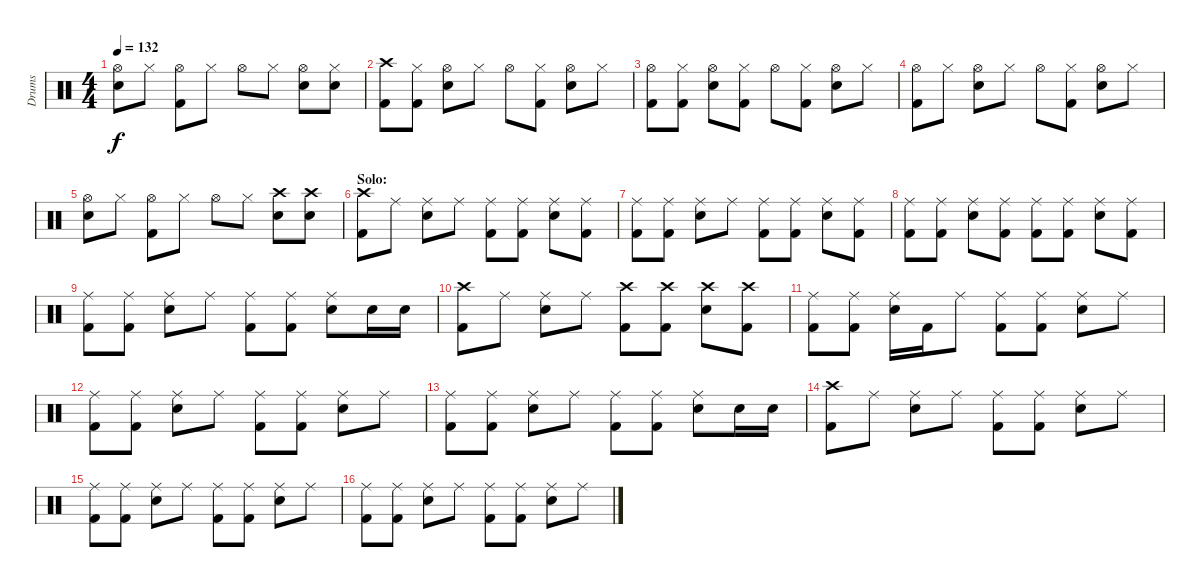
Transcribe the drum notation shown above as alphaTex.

\track ("Drums" "Drums") {instrument percussion}
\staff {score}
\articulation defaults
\ts (4 4)
\tempo 132
\clef neutral
\ks c
("Hi-Hat (open)" "Electric Snare (hit)").8{dy f} "Hi-Hat (closed)".8 ("Hi-Hat (open)" "Kick (hit) 2").8 "Hi-Hat (closed)".8 "Hi-Hat (open)".8 "Hi-Hat (closed)".8 ("Hi-Hat (open)" "Electric Snare (hit)").8 ("Hi-Hat (closed)" "Electric Snare (hit)").8 |
("Crash high (hit)" "Kick (hit) 2").8 ("Hi-Hat (closed)" "Kick (hit) 2").8 ("Hi-Hat (open)" "Electric Snare (hit)").8 "Hi-Hat (closed)".8 "Hi-Hat (open)".8 ("Hi-Hat (closed)" "Kick (hit) 2").8 ("Hi-Hat (open)" "Electric Snare (hit)").8 "Hi-Hat (closed)".8 |
("Hi-Hat (open)" "Kick (hit) 2").8 ("Hi-Hat (closed)" "Kick (hit) 2").8 ("Hi-Hat (open)" "Electric Snare (hit)").8 ("Hi-Hat (closed)" "Kick (hit) 2").8 "Hi-Hat (open)".8 ("Hi-Hat (closed)" "Kick (hit) 2").8 ("Hi-Hat (open)" "Electric Snare (hit)").8 "Hi-Hat (closed)".8 |
("Hi-Hat (open)" "Kick (hit) 2").8 "Hi-Hat (closed)".8 ("Hi-Hat (open)" "Electric Snare (hit)").8 "Hi-Hat (closed)".8 "Hi-Hat (open)".8 ("Hi-Hat (closed)" "Kick (hit) 2").8 ("Hi-Hat (open)" "Electric Snare (hit)").8 "Hi-Hat (closed)".8 |
("Hi-Hat (open)" "Electric Snare (hit)").8 "Hi-Hat (closed)".8 ("Hi-Hat (open)" "Kick (hit) 2").8 "Hi-Hat (closed)".8 "Hi-Hat (open)".8 "Hi-Hat (closed)".8 ("Crash high (hit)" "Electric Snare (hit)").8 ("Crash high (hit)" "Electric Snare (hit)").8 |
\section ("" "Solo:")
("Crash high (hit)" "Kick (hit) 2").8 "Ride (middle)".8 ("Ride (middle)" "Electric Snare (hit)").8 "Ride (middle)".8 ("Ride (middle)" "Kick (hit) 2").8 ("Ride (middle)" "Kick (hit) 2").8 ("Ride (middle)" "Electric Snare (hit)").8 ("Ride (middle)" "Kick (hit) 2").8 |
("Ride (middle)" "Kick (hit) 2").8 ("Ride (middle)" "Kick (hit) 2").8 ("Ride (middle)" "Electric Snare (hit)").8 "Ride (middle)".8 ("Ride (middle)" "Kick (hit) 2").8 ("Ride (middle)" "Kick (hit) 2").8 ("Ride (middle)" "Electric Snare (hit)").8 ("Ride (middle)" "Kick (hit) 2").8 |
("Ride (middle)" "Kick (hit) 2").8 ("Ride (middle)" "Kick (hit) 2").8 ("Ride (middle)" "Electric Snare (hit)").8 ("Ride (middle)" "Kick (hit) 2").8 ("Ride (middle)" "Kick (hit) 2").8 ("Ride (middle)" "Kick (hit) 2").8 ("Ride (middle)" "Electric Snare (hit)").8 ("Ride (middle)" "Kick (hit) 2").8 |
("Ride (middle)" "Kick (hit) 2").8 ("Ride (middle)" "Kick (hit) 2").8 ("Ride (middle)" "Electric Snare (hit)").8 "Ride (middle)".8 ("Ride (middle)" "Kick (hit) 2").8 ("Ride (middle)" "Kick (hit) 2").8 ("Ride (middle)" "Electric Snare (hit)").8 "Electric Snare (hit)".16 "Electric Snare (hit)".16 |
("Crash high (hit)" "Kick (hit) 2").8 "Ride (middle)".8 ("Ride (middle)" "Electric Snare (hit)").8 "Ride (middle)".8 ("Crash high (hit)" "Kick (hit) 2").8 ("Crash high (hit)" "Kick (hit) 2").8 ("Crash high (hit)" "Electric Snare (hit)").8 ("Crash high (hit)" "Kick (hit) 2").8 |
("Ride (middle)" "Kick (hit) 2").8 ("Ride (middle)" "Kick (hit) 2").8 ("Ride (middle)" "Electric Snare (hit)").16 "Kick (hit) 2".16 "Ride (middle)".8 ("Ride (middle)" "Kick (hit) 2").8 ("Ride (middle)" "Kick (hit) 2").8 ("Ride (middle)" "Electric Snare (hit)").8 "Ride (middle)".8 |
("Ride (middle)" "Kick (hit) 2").8 ("Ride (middle)" "Kick (hit) 2").8 ("Ride (middle)" "Electric Snare (hit)").8 "Ride (middle)".8 ("Ride (middle)" "Kick (hit) 2").8 ("Ride (middle)" "Kick (hit) 2").8 ("Ride (middle)" "Electric Snare (hit)").8 "Ride (middle)".8 |
("Ride (middle)" "Kick (hit) 2").8 ("Ride (middle)" "Kick (hit) 2").8 ("Ride (middle)" "Electric Snare (hit)").8 "Ride (middle)".8 ("Ride (middle)" "Kick (hit) 2").8 ("Ride (middle)" "Kick (hit) 2").8 ("Ride (middle)" "Electric Snare (hit)").8 "Electric Snare (hit)".16 "Electric Snare (hit)".16 |
("Crash high (hit)" "Kick (hit) 2").8 "Ride (middle)".8 ("Ride (middle)" "Electric Snare (hit)").8 "Ride (middle)".8 ("Ride (middle)" "Kick (hit) 2").8 ("Ride (middle)" "Kick (hit) 2").8 ("Ride (middle)" "Electric Snare (hit)").8 "Ride (middle)".8 |
("Ride (middle)" "Kick (hit) 2").8 ("Ride (middle)" "Kick (hit) 2").8 ("Ride (middle)" "Electric Snare (hit)").8 "Ride (middle)".8 ("Ride (middle)" "Kick (hit) 2").8 ("Ride (middle)" "Kick (hit) 2").8 ("Ride (middle)" "Electric Snare (hit)").8 "Ride (middle)".8 |
("Ride (middle)" "Kick (hit) 2").8 ("Ride (middle)" "Kick (hit) 2").8 ("Ride (middle)" "Electric Snare (hit)").8 "Ride (middle)".8 ("Ride (middle)" "Kick (hit) 2").8 ("Ride (middle)" "Kick (hit) 2").8 ("Ride (middle)" "Electric Snare (hit)").8 "Ride (middle)".8
